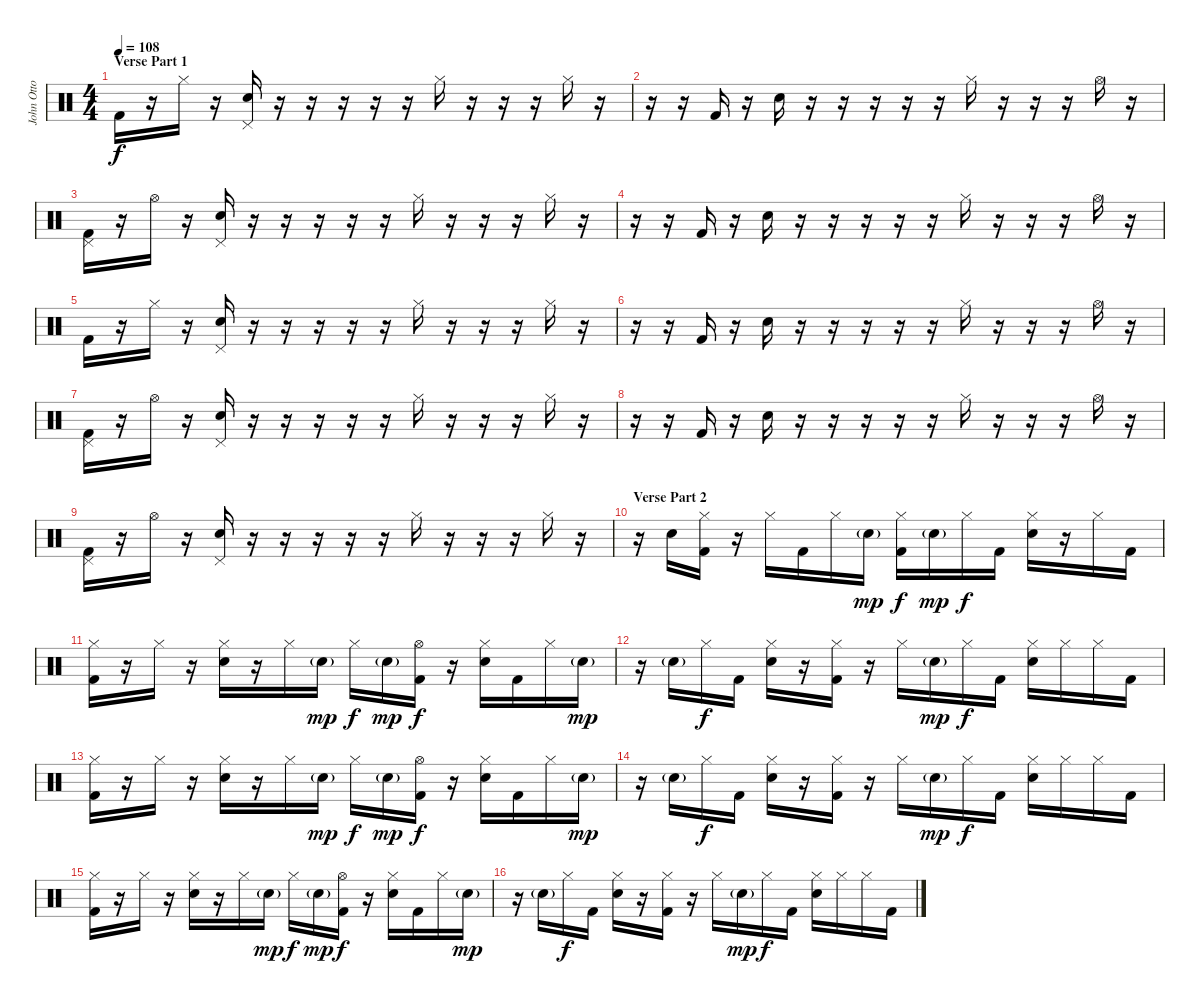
\track ("John Otto - Drums" "John Otto ") {instrument percussion}
\staff {score}
\articulation defaults
\ts (4 4)
\section ("" "Verse Part 1")
\tempo 108
\clef neutral
\ks c "Kick (hit) 2".16{dy f}
r.16 "Hi-Hat (closed)".16 r.16 ("Pedal Hi-Hat (hit)" "Snare (hit) 2").16 r.16 r.16 r.16 r.16 r.16 "Hi-Hat (closed)".16 r.16 r.16 r.16 "Hi-Hat (closed)".16 r.16 |
r.16 r.16 "Kick (hit) 2".16 r.16 "Snare (hit) 2".16 r.16 r.16 r.16 r.16 r.16 "Hi-Hat (closed)".16 r.16 r.16 r.16 "Hi-Hat (open)".16 r.16 |
("Pedal Hi-Hat (hit)" "Kick (hit) 2").16 r.16 "Hi-Hat (open)".16 r.16 ("Pedal Hi-Hat (hit)" "Snare (hit) 2").16 r.16 r.16 r.16 r.16 r.16 "Hi-Hat (closed)".16 r.16 r.16 r.16 "Hi-Hat (closed)".16 r.16 |
r.16 r.16 "Kick (hit) 2".16 r.16 "Snare (hit) 2".16 r.16 r.16 r.16 r.16 r.16 "Hi-Hat (closed)".16 r.16 r.16 r.16 "Hi-Hat (open)".16 r.16 |
"Kick (hit) 2".16 r.16 "Hi-Hat (closed)".16 r.16 ("Pedal Hi-Hat (hit)" "Snare (hit) 2").16 r.16 r.16 r.16 r.16 r.16 "Hi-Hat (closed)".16 r.16 r.16 r.16 "Hi-Hat (closed)".16 r.16 |
r.16 r.16 "Kick (hit) 2".16 r.16 "Snare (hit) 2".16 r.16 r.16 r.16 r.16 r.16 "Hi-Hat (closed)".16 r.16 r.16 r.16 "Hi-Hat (open)".16 r.16 |
("Pedal Hi-Hat (hit)" "Kick (hit) 2").16 r.16 "Hi-Hat (open)".16 r.16 ("Pedal Hi-Hat (hit)" "Snare (hit) 2").16 r.16 r.16 r.16 r.16 r.16 "Hi-Hat (closed)".16 r.16 r.16 r.16 "Hi-Hat (closed)".16 r.16 |
r.16 r.16 "Kick (hit) 2".16 r.16 "Snare (hit) 2".16 r.16 r.16 r.16 r.16 r.16 "Hi-Hat (closed)".16 r.16 r.16 r.16 "Hi-Hat (open)".16 r.16 |
("Pedal Hi-Hat (hit)" "Kick (hit) 2").16 r.16 "Hi-Hat (open)".16 r.16 ("Pedal Hi-Hat (hit)" "Snare (hit) 2").16 r.16 r.16 r.16 r.16 r.16 "Hi-Hat (closed)".16 r.16 r.16 r.16 "Hi-Hat (closed)".16 r.16 |
\section ("" "Verse Part 2")
r.16 "Snare (hit) 2".16 ("Hi-Hat (closed)" "Kick (hit) 2").16 r.16 "Hi-Hat (closed)".16 "Kick (hit) 2".16 "Hi-Hat (closed)".16 "Snare (hit) 2"{g}.16{dy mp} ("Hi-Hat (closed)" "Kick (hit) 2").16{dy f} "Snare (hit) 2"{g}.16{dy mp} "Hi-Hat (closed)".16{dy f} "Kick (hit) 2".16 ("Hi-Hat (closed)" "Snare (hit) 2").16 r.16 "Hi-Hat (closed)".16 "Kick (hit) 2".16 |
("Hi-Hat (closed)" "Kick (hit) 2").16 r.16 "Hi-Hat (closed)".16 r.16 ("Hi-Hat (closed)" "Snare (hit) 2").16 r.16 "Hi-Hat (closed)".16 "Snare (hit) 2"{g}.16{dy mp} "Hi-Hat (closed)".16{dy f} "Snare (hit) 2"{g}.16{dy mp} ("Hi-Hat (open)" "Kick (hit) 2").16{dy f} r.16 ("Hi-Hat (closed)" "Snare (hit) 2").16 "Kick (hit) 2".16 "Hi-Hat (closed)".16 "Snare (hit) 2"{g}.16{dy mp} |
r.16 "Snare (hit) 2"{g}.16 "Hi-Hat (closed)".16{dy f} "Kick (hit) 2".16 ("Hi-Hat (closed)" "Snare (hit) 2").16 r.16 ("Hi-Hat (closed)" "Kick (hit) 2").16 r.16 "Hi-Hat (closed)".16 "Snare (hit) 2"{g}.16{dy mp} "Hi-Hat (closed)".16{dy f} "Kick (hit) 2".16 ("Hi-Hat (closed)" "Snare (hit) 2").16 "Hi-Hat (closed)".16 "Hi-Hat (closed)".16 "Kick (hit) 2".16 |
("Hi-Hat (closed)" "Kick (hit) 2").16 r.16 "Hi-Hat (closed)".16 r.16 ("Hi-Hat (closed)" "Snare (hit) 2").16 r.16 "Hi-Hat (closed)".16 "Snare (hit) 2"{g}.16{dy mp} "Hi-Hat (closed)".16{dy f} "Snare (hit) 2"{g}.16{dy mp} ("Hi-Hat (open)" "Kick (hit) 2").16{dy f} r.16 ("Hi-Hat (closed)" "Snare (hit) 2").16 "Kick (hit) 2".16 "Hi-Hat (closed)".16 "Snare (hit) 2"{g}.16{dy mp} |
r.16 "Snare (hit) 2"{g}.16 "Hi-Hat (closed)".16{dy f} "Kick (hit) 2".16 ("Hi-Hat (closed)" "Snare (hit) 2").16 r.16 ("Hi-Hat (closed)" "Kick (hit) 2").16 r.16 "Hi-Hat (closed)".16 "Snare (hit) 2"{g}.16{dy mp} "Hi-Hat (closed)".16{dy f} "Kick (hit) 2".16 ("Hi-Hat (closed)" "Snare (hit) 2").16 "Hi-Hat (closed)".16 "Hi-Hat (closed)".16 "Kick (hit) 2".16 |
("Hi-Hat (closed)" "Kick (hit) 2").16 r.16 "Hi-Hat (closed)".16 r.16 ("Hi-Hat (closed)" "Snare (hit) 2").16 r.16 "Hi-Hat (closed)".16 "Snare (hit) 2"{g}.16{dy mp} "Hi-Hat (closed)".16{dy f} "Snare (hit) 2"{g}.16{dy mp} ("Hi-Hat (open)" "Kick (hit) 2").16{dy f} r.16 ("Hi-Hat (closed)" "Snare (hit) 2").16 "Kick (hit) 2".16 "Hi-Hat (closed)".16 "Snare (hit) 2"{g}.16{dy mp} |
r.16 "Snare (hit) 2"{g}.16 "Hi-Hat (closed)".16{dy f} "Kick (hit) 2".16 ("Hi-Hat (closed)" "Snare (hit) 2").16 r.16 ("Hi-Hat (closed)" "Kick (hit) 2").16 r.16 "Hi-Hat (closed)".16 "Snare (hit) 2"{g}.16{dy mp} "Hi-Hat (closed)".16{dy f} "Kick (hit) 2".16 ("Hi-Hat (closed)" "Snare (hit) 2").16 "Hi-Hat (closed)".16 "Hi-Hat (closed)".16 "Kick (hit) 2".16
